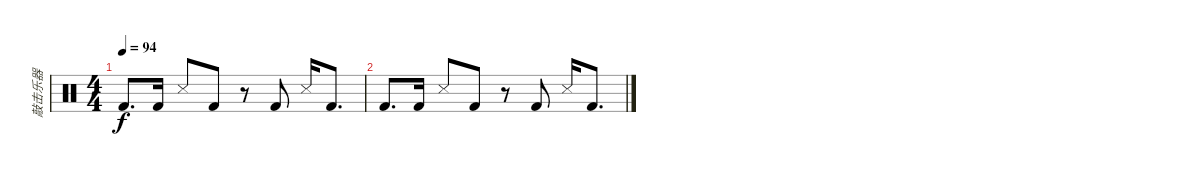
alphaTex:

\track ("敲击乐器" "敲击乐器") {instrument percussion}
\staff {score}
\articulation defaults
\ts (4 4)
\tempo 94
\clef neutral
\ks c "Kick (hit) 2".8{d dy f} "Kick (hit) 2".16 "Snare (side stick) 3".8 "Kick (hit) 2".8
r.8 "Kick (hit) 2".8 "Snare (side stick) 3".16 "Kick (hit) 2".8{d} |
"Kick (hit) 2".8{d} "Kick (hit) 2".16 "Snare (side stick) 3".8 "Kick (hit) 2".8 r.8 "Kick (hit) 2".8 "Snare (side stick) 3".16 "Kick (hit) 2".8{d}
